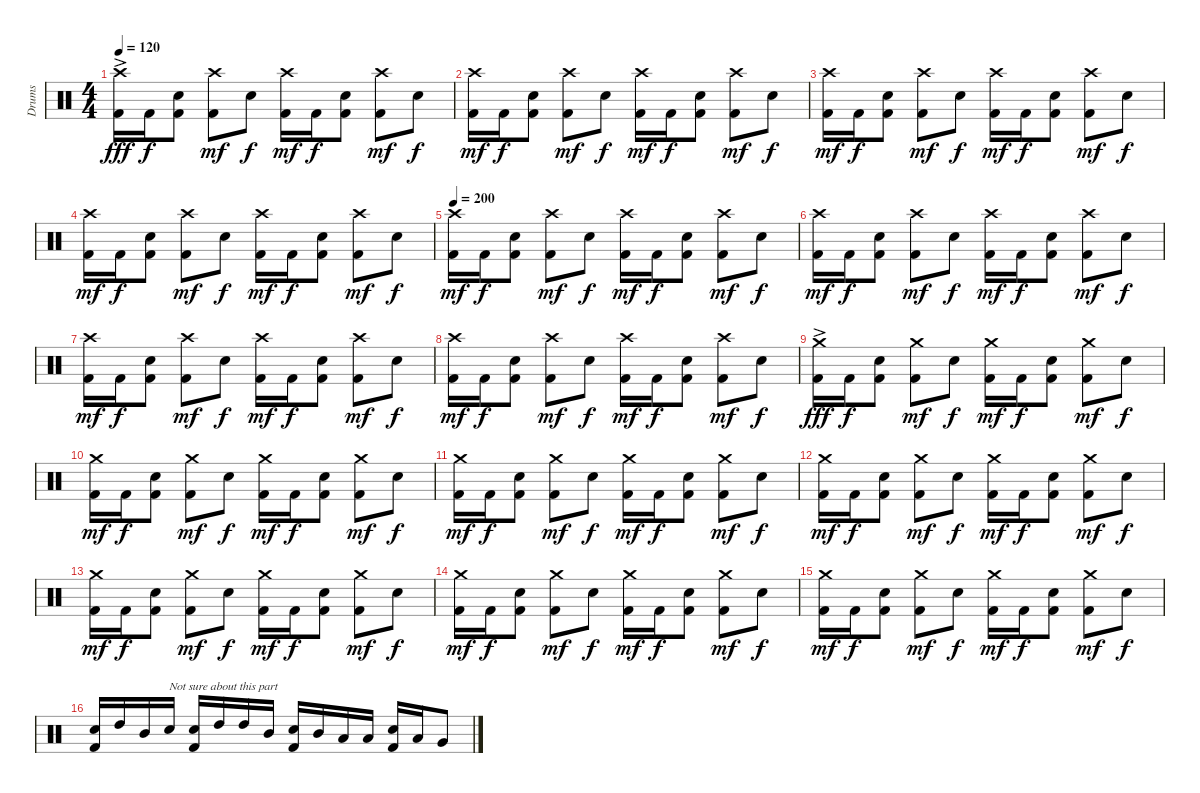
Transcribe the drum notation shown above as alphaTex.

\track ("Drums" "Drums") {instrument percussion}
\staff {score}
\articulation defaults
\ts (4 4)
\tempo 120
\tempo 200
\tempo 120
\clef neutral
\ks c
("Crash high (hit)"{ac} "Kick (hit) 2").16{dy fff} "Kick (hit) 2".16{dy f} ("Electric Snare (hit)" "Kick (hit) 2").8 ("Crash high (hit)" "Kick (hit) 2").8{dy mf} "Electric Snare (hit)".8{dy f} ("Crash high (hit)" "Kick (hit) 2").16{dy mf} "Kick (hit) 2".16{dy f} ("Electric Snare (hit)" "Kick (hit) 2").8 ("Crash high (hit)" "Kick (hit) 2").8{dy mf} "Electric Snare (hit)".8{dy f} |
("Crash high (hit)" "Kick (hit) 2").16{dy mf} "Kick (hit) 2".16{dy f} ("Electric Snare (hit)" "Kick (hit) 2").8 ("Crash high (hit)" "Kick (hit) 2").8{dy mf} "Electric Snare (hit)".8{dy f} ("Crash high (hit)" "Kick (hit) 2").16{dy mf} "Kick (hit) 2".16{dy f} ("Electric Snare (hit)" "Kick (hit) 2").8 ("Crash high (hit)" "Kick (hit) 2").8{dy mf} "Electric Snare (hit)".8{dy f} |
("Crash high (hit)" "Kick (hit) 2").16{dy mf} "Kick (hit) 2".16{dy f} ("Electric Snare (hit)" "Kick (hit) 2").8 ("Crash high (hit)" "Kick (hit) 2").8{dy mf} "Electric Snare (hit)".8{dy f} ("Crash high (hit)" "Kick (hit) 2").16{dy mf} "Kick (hit) 2".16{dy f} ("Electric Snare (hit)" "Kick (hit) 2").8 ("Crash high (hit)" "Kick (hit) 2").8{dy mf} "Electric Snare (hit)".8{dy f} |
("Crash high (hit)" "Kick (hit) 2").16{dy mf} "Kick (hit) 2".16{dy f} ("Electric Snare (hit)" "Kick (hit) 2").8 ("Crash high (hit)" "Kick (hit) 2").8{dy mf} "Electric Snare (hit)".8{dy f} ("Crash high (hit)" "Kick (hit) 2").16{dy mf} "Kick (hit) 2".16{dy f} ("Electric Snare (hit)" "Kick (hit) 2").8 ("Crash high (hit)" "Kick (hit) 2").8{dy mf} "Electric Snare (hit)".8{dy f} |
\tempo 200
("Crash high (hit)" "Kick (hit) 2").16{dy mf} "Kick (hit) 2".16{dy f} ("Electric Snare (hit)" "Kick (hit) 2").8 ("Crash high (hit)" "Kick (hit) 2").8{dy mf} "Electric Snare (hit)".8{dy f} ("Crash high (hit)" "Kick (hit) 2").16{dy mf} "Kick (hit) 2".16{dy f} ("Electric Snare (hit)" "Kick (hit) 2").8 ("Crash high (hit)" "Kick (hit) 2").8{dy mf} "Electric Snare (hit)".8{dy f} |
("Crash high (hit)" "Kick (hit) 2").16{dy mf} "Kick (hit) 2".16{dy f} ("Electric Snare (hit)" "Kick (hit) 2").8 ("Crash high (hit)" "Kick (hit) 2").8{dy mf} "Electric Snare (hit)".8{dy f} ("Crash high (hit)" "Kick (hit) 2").16{dy mf} "Kick (hit) 2".16{dy f} ("Electric Snare (hit)" "Kick (hit) 2").8 ("Crash high (hit)" "Kick (hit) 2").8{dy mf} "Electric Snare (hit)".8{dy f} |
("Crash high (hit)" "Kick (hit) 2").16{dy mf} "Kick (hit) 2".16{dy f} ("Electric Snare (hit)" "Kick (hit) 2").8 ("Crash high (hit)" "Kick (hit) 2").8{dy mf} "Electric Snare (hit)".8{dy f} ("Crash high (hit)" "Kick (hit) 2").16{dy mf} "Kick (hit) 2".16{dy f} ("Electric Snare (hit)" "Kick (hit) 2").8 ("Crash high (hit)" "Kick (hit) 2").8{dy mf} "Electric Snare (hit)".8{dy f} |
("Crash high (hit)" "Kick (hit) 2").16{dy mf} "Kick (hit) 2".16{dy f} ("Electric Snare (hit)" "Kick (hit) 2").8 ("Crash high (hit)" "Kick (hit) 2").8{dy mf} "Electric Snare (hit)".8{dy f} ("Crash high (hit)" "Kick (hit) 2").16{dy mf} "Kick (hit) 2".16{dy f} ("Electric Snare (hit)" "Kick (hit) 2").8 ("Crash high (hit)" "Kick (hit) 2").8{dy mf} "Electric Snare (hit)".8{dy f} |
("Crash medium (hit)"{ac} "Kick (hit) 2").16{dy fff} "Kick (hit) 2".16{dy f} ("Electric Snare (hit)" "Kick (hit) 2").8 ("Crash medium (hit)" "Kick (hit) 2").8{dy mf} "Electric Snare (hit)".8{dy f} ("Crash medium (hit)" "Kick (hit) 2").16{dy mf} "Kick (hit) 2".16{dy f} ("Electric Snare (hit)" "Kick (hit) 2").8 ("Crash medium (hit)" "Kick (hit) 2").8{dy mf} "Electric Snare (hit)".8{dy f} |
("Crash medium (hit)" "Kick (hit) 2").16{dy mf} "Kick (hit) 2".16{dy f} ("Electric Snare (hit)" "Kick (hit) 2").8 ("Crash medium (hit)" "Kick (hit) 2").8{dy mf} "Electric Snare (hit)".8{dy f} ("Crash medium (hit)" "Kick (hit) 2").16{dy mf} "Kick (hit) 2".16{dy f} ("Electric Snare (hit)" "Kick (hit) 2").8 ("Crash medium (hit)" "Kick (hit) 2").8{dy mf} "Electric Snare (hit)".8{dy f} |
("Crash medium (hit)" "Kick (hit) 2").16{dy mf} "Kick (hit) 2".16{dy f} ("Electric Snare (hit)" "Kick (hit) 2").8 ("Crash medium (hit)" "Kick (hit) 2").8{dy mf} "Electric Snare (hit)".8{dy f} ("Crash medium (hit)" "Kick (hit) 2").16{dy mf} "Kick (hit) 2".16{dy f} ("Electric Snare (hit)" "Kick (hit) 2").8 ("Crash medium (hit)" "Kick (hit) 2").8{dy mf} "Electric Snare (hit)".8{dy f} |
("Crash medium (hit)" "Kick (hit) 2").16{dy mf} "Kick (hit) 2".16{dy f} ("Electric Snare (hit)" "Kick (hit) 2").8 ("Crash medium (hit)" "Kick (hit) 2").8{dy mf} "Electric Snare (hit)".8{dy f} ("Crash medium (hit)" "Kick (hit) 2").16{dy mf} "Kick (hit) 2".16{dy f} ("Electric Snare (hit)" "Kick (hit) 2").8 ("Crash medium (hit)" "Kick (hit) 2").8{dy mf} "Electric Snare (hit)".8{dy f} |
("Crash medium (hit)" "Kick (hit) 2").16{dy mf} "Kick (hit) 2".16{dy f} ("Electric Snare (hit)" "Kick (hit) 2").8 ("Crash medium (hit)" "Kick (hit) 2").8{dy mf} "Electric Snare (hit)".8{dy f} ("Crash medium (hit)" "Kick (hit) 2").16{dy mf} "Kick (hit) 2".16{dy f} ("Electric Snare (hit)" "Kick (hit) 2").8 ("Crash medium (hit)" "Kick (hit) 2").8{dy mf} "Electric Snare (hit)".8{dy f} |
("Crash medium (hit)" "Kick (hit) 2").16{dy mf} "Kick (hit) 2".16{dy f} ("Electric Snare (hit)" "Kick (hit) 2").8 ("Crash medium (hit)" "Kick (hit) 2").8{dy mf} "Electric Snare (hit)".8{dy f} ("Crash medium (hit)" "Kick (hit) 2").16{dy mf} "Kick (hit) 2".16{dy f} ("Electric Snare (hit)" "Kick (hit) 2").8 ("Crash medium (hit)" "Kick (hit) 2").8{dy mf} "Electric Snare (hit)".8{dy f} |
("Crash medium (hit)" "Kick (hit) 2").16{dy mf} "Kick (hit) 2".16{dy f} ("Electric Snare (hit)" "Kick (hit) 2").8 ("Crash medium (hit)" "Kick (hit) 2").8{dy mf} "Electric Snare (hit)".8{dy f} ("Crash medium (hit)" "Kick (hit) 2").16{dy mf} "Kick (hit) 2".16{dy f} ("Electric Snare (hit)" "Kick (hit) 2").8 ("Crash medium (hit)" "Kick (hit) 2").8{dy mf} "Electric Snare (hit)".8{dy f} |
("Electric Snare (hit)" "Kick (hit) 2").16 "High Tom (hit)".16 "Mid Tom (hit)".16 "Electric Snare (hit)".16{txt "Not sure about this part"} ("Electric Snare (hit)" "Kick (hit) 2").16 "High Tom (hit)".16 "High Tom (hit)".16 "Mid Tom (hit)".16 ("Electric Snare (hit)" "Kick (hit) 2").16 "Mid Tom (hit)".16 "Low Tom (hit)".16 "Low Tom (hit)".16 ("Electric Snare (hit)" "Kick (hit) 2").16 "Low Tom (hit)".16 "Very Low Tom (hit)".8
